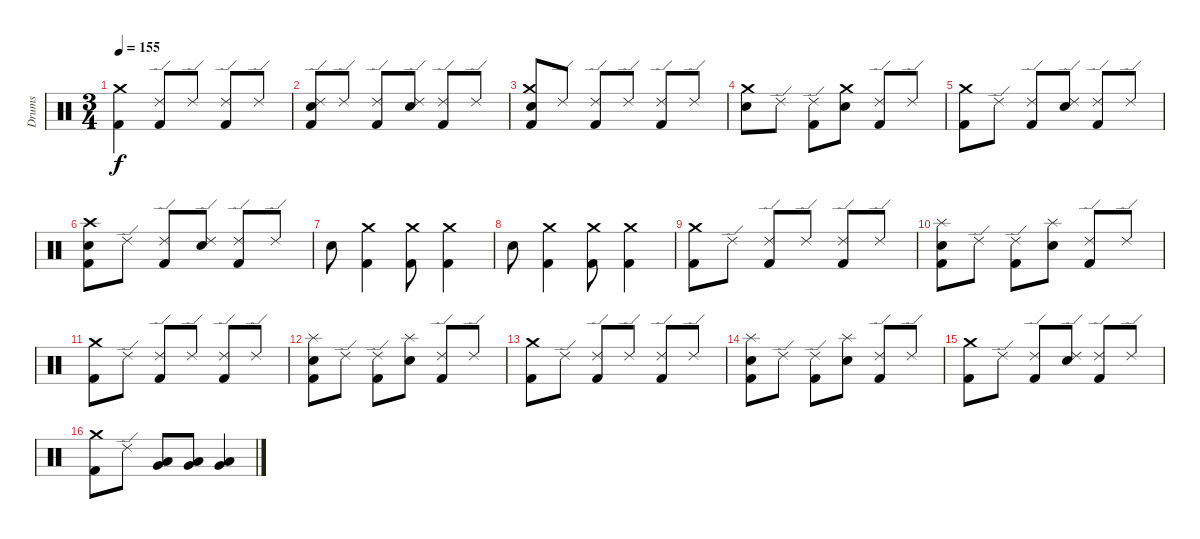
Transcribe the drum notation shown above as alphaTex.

\track ("Drums" "Drums") {instrument percussion}
\staff {score}
\articulation defaults
\ts (3 4)
\tempo 155
\clef neutral
\ks c
("Kick (hit) 2" "Crash medium (hit)").4{dy f} ("Kick (hit) 2" "Ride (edge) 2").8 "Ride (edge) 2".8 ("Kick (hit) 2" "Ride (edge) 2").8 "Ride (edge) 2".8 |
("Ride (edge) 2" "Snare (hit) 2" "Kick (hit) 2").8 "Ride (edge) 2".8 ("Ride (edge) 2" "Kick (hit) 2").8 ("Ride (edge) 2" "Snare (hit) 2").8 ("Ride (edge) 2" "Kick (hit) 2").8 "Ride (edge) 2".8 |
("Snare (hit) 2" "Crash medium (hit)" "Kick (hit) 2").8 "Ride (edge) 2".8 ("Ride (edge) 2" "Kick (hit) 2").8 "Ride (edge) 2".8 ("Ride (edge) 2" "Kick (hit) 2").8 "Ride (edge) 2".8 |
("Crash medium (hit)" "Snare (hit) 2").8 "Ride (edge) 2".8 ("Ride (edge) 2" "Kick (hit) 2").8 ("Crash medium (hit)" "Snare (hit) 2").8 ("Ride (edge) 2" "Kick (hit) 2").8 "Ride (edge) 2".8 |
("Kick (hit) 2" "Crash medium (hit)").8 "Ride (edge) 2".8 ("Ride (edge) 2" "Kick (hit) 2").8 ("Ride (edge) 2" "Snare (hit) 2").8 ("Ride (edge) 2" "Kick (hit) 2").8 "Ride (edge) 2".8 |
("Crash high (hit)" "Snare (hit) 2" "Kick (hit) 2").8 "Ride (edge) 2".8 ("Ride (edge) 2" "Kick (hit) 2").8 ("Ride (edge) 2" "Snare (hit) 2").8 ("Ride (edge) 2" "Kick (hit) 2").8 "Ride (edge) 2".8 |
"Snare (hit) 2".8 ("Kick (hit) 2" "Crash medium (hit)").4 ("Kick (hit) 2" "Crash medium (hit)").8 ("Kick (hit) 2" "Crash medium (hit)").4 |
"Snare (hit) 2".8 ("Kick (hit) 2" "Crash medium (hit)").4 ("Kick (hit) 2" "Crash medium (hit)").8 ("Kick (hit) 2" "Crash medium (hit)").4 |
("Kick (hit) 2" "Crash medium (hit)").8 "Ride (edge) 2".8 ("Ride (edge) 2" "Kick (hit) 2").8 "Ride (edge) 2".8 ("Ride (edge) 2" "Kick (hit) 2").8 "Ride (edge) 2".8 |
("Snare (hit) 2" "Splash (hit)" "Kick (hit) 2").8 "Ride (edge) 2".8 ("Kick (hit) 2" "Ride (edge) 2").8 ("Splash (hit)" "Snare (hit) 2").8 ("Ride (edge) 2" "Kick (hit) 2").8 "Ride (edge) 2".8 |
("Kick (hit) 2" "Crash medium (hit)").8 "Ride (edge) 2".8 ("Ride (edge) 2" "Kick (hit) 2").8 "Ride (edge) 2".8 ("Ride (edge) 2" "Kick (hit) 2").8 "Ride (edge) 2".8 |
("Snare (hit) 2" "Splash (hit)" "Kick (hit) 2").8 "Ride (edge) 2".8 ("Kick (hit) 2" "Ride (edge) 2").8 ("Splash (hit)" "Snare (hit) 2").8 ("Ride (edge) 2" "Kick (hit) 2").8 "Ride (edge) 2".8 |
("Kick (hit) 2" "Crash medium (hit)").8 "Ride (edge) 2".8 ("Ride (edge) 2" "Kick (hit) 2").8 "Ride (edge) 2".8 ("Ride (edge) 2" "Kick (hit) 2").8 "Ride (edge) 2".8 |
("Snare (hit) 2" "Splash (hit)" "Kick (hit) 2").8 "Ride (edge) 2".8 ("Kick (hit) 2" "Ride (edge) 2").8 ("Splash (hit)" "Snare (hit) 2").8 ("Ride (edge) 2" "Kick (hit) 2").8 "Ride (edge) 2".8 |
("Kick (hit) 2" "Crash medium (hit)").8 "Ride (edge) 2".8 ("Kick (hit) 2" "Ride (edge) 2").8 ("Ride (edge) 2" "Snare (hit) 2").8 ("Ride (edge) 2" "Kick (hit) 2").8 "Ride (edge) 2".8 |
("Kick (hit) 2" "Crash medium (hit)").8 "Ride (edge) 2".8 ("Low Floor Tom (hit)" "Very Low Tom (hit)").8 ("Very Low Tom (hit)" "Low Floor Tom (hit)").8 ("Low Floor Tom (hit)" "Very Low Tom (hit)").4
